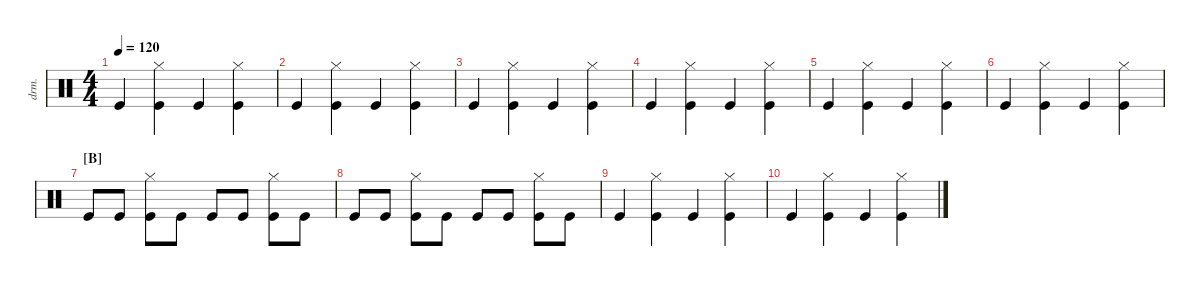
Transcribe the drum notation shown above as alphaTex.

\defaultSystemsLayout 4
\hideDynamics
\bracketExtendMode nobrackets
\chordDiagramsInScore
\track ("Drumkit" "drm.") {instrument percussion}
\staff {score}
\articulation defaults
\ts (4 4)
\tempo 120
\clef neutral
\ks c "Kick (hit)".4{dy mf beam Up}
("Kick (hit)" "Hi-Hat (closed)").4{beam Down} "Kick (hit)".4{beam Up} ("Kick (hit)" "Hi-Hat (closed)").4{beam Down} |
"Kick (hit)".4{beam Up} ("Kick (hit)" "Hi-Hat (closed)").4{beam Down} "Kick (hit)".4{beam Up} ("Kick (hit)" "Hi-Hat (closed)").4{beam Down} |
"Kick (hit)".4{beam Up} ("Kick (hit)" "Hi-Hat (closed)").4{beam Down} "Kick (hit)".4{beam Up} ("Kick (hit)" "Hi-Hat (closed)").4{beam Down} |
"Kick (hit)".4{beam Up} ("Kick (hit)" "Hi-Hat (closed)").4{beam Down} "Kick (hit)".4{beam Up} ("Kick (hit)" "Hi-Hat (closed)").4{beam Down} |
"Kick (hit)".4{beam Up} ("Kick (hit)" "Hi-Hat (closed)").4{beam Down} "Kick (hit)".4{beam Up} ("Kick (hit)" "Hi-Hat (closed)").4{beam Down} |
"Kick (hit)".4{beam Up} ("Kick (hit)" "Hi-Hat (closed)").4{beam Down} "Kick (hit)".4{beam Up} ("Kick (hit)" "Hi-Hat (closed)").4{beam Down} |
\section ("B" "")
"Kick (hit)".8{beam Up} "Kick (hit)".8{beam Up} ("Kick (hit)" "Hi-Hat (closed)").8{beam Down} "Kick (hit)".8{beam Down} "Kick (hit)".8{beam Up} "Kick (hit)".8{beam Up} ("Kick (hit)" "Hi-Hat (closed)").8{beam Down} "Kick (hit)".8{beam Down} |
"Kick (hit)".8{beam Up} "Kick (hit)".8{beam Up} ("Kick (hit)" "Hi-Hat (closed)").8{beam Down} "Kick (hit)".8{beam Down} "Kick (hit)".8{beam Up} "Kick (hit)".8{beam Up} ("Kick (hit)" "Hi-Hat (closed)").8{beam Down} "Kick (hit)".8{beam Down} |
"Kick (hit)".4{beam Up} ("Kick (hit)" "Hi-Hat (closed)").4{beam Down} "Kick (hit)".4{beam Up} ("Kick (hit)" "Hi-Hat (closed)").4{beam Down} |
"Kick (hit)".4{beam Up} ("Kick (hit)" "Hi-Hat (closed)").4{beam Down} "Kick (hit)".4{beam Up} ("Kick (hit)" "Hi-Hat (closed)").4{beam Down}
